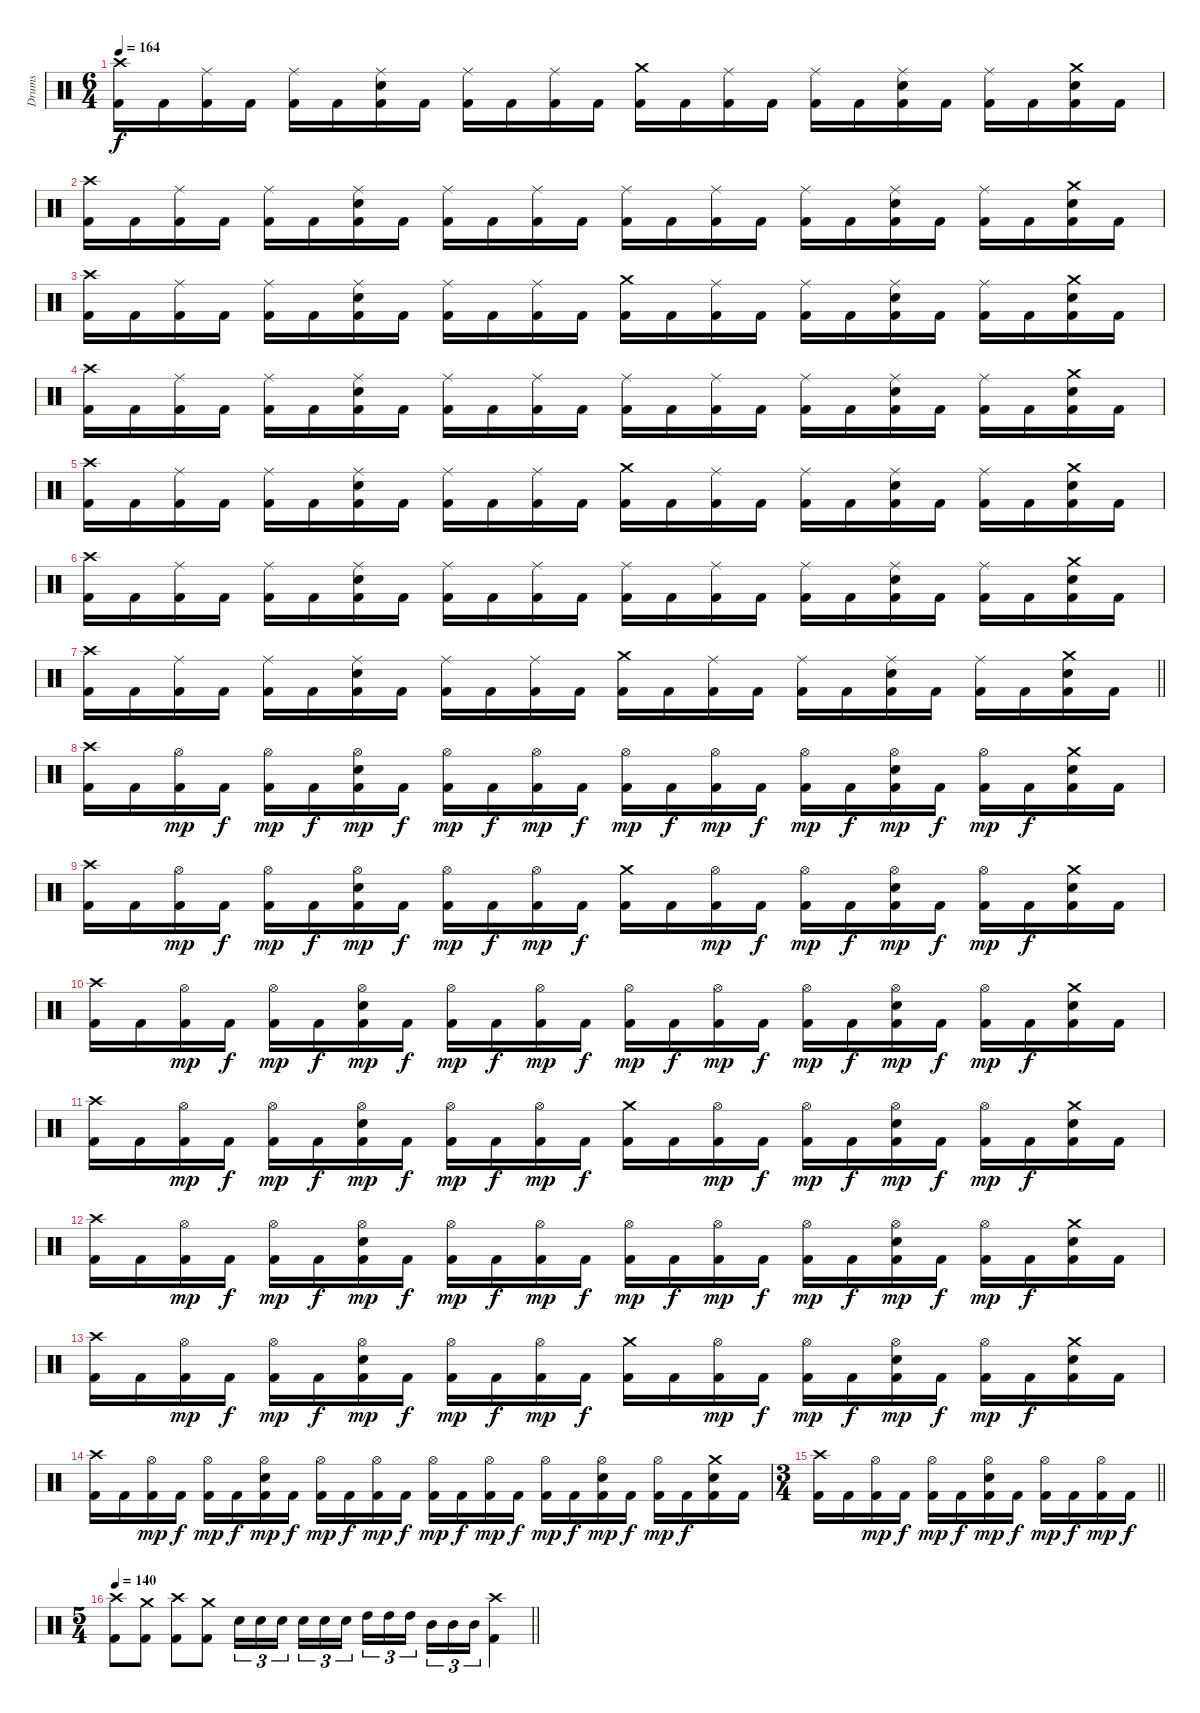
\track ("Drums" "Drums") {instrument percussion}
\staff {score}
\articulation defaults
\ts (6 4)
\tempo 164
\clef neutral
\ks c
("Crash high (hit)" "Kick (hit) 2").16{dy f} "Kick (hit) 2".16 ("Ride (middle)" "Kick (hit) 2").16 "Kick (hit) 2".16 ("Ride (middle)" "Kick (hit) 2").16 "Kick (hit) 2".16 ("Ride (middle)" "Snare (hit) 2" "Kick (hit) 2").16 "Kick (hit) 2".16 ("Ride (middle)" "Kick (hit) 2").16 "Kick (hit) 2".16 ("Ride (middle)" "Kick (hit) 2").16 "Kick (hit) 2".16 ("Crash medium (hit)" "Kick (hit) 2").16 "Kick (hit) 2".16 ("Ride (middle)" "Kick (hit) 2").16 "Kick (hit) 2".16 ("Ride (middle)" "Kick (hit) 2").16 "Kick (hit) 2".16 ("Ride (middle)" "Snare (hit) 2" "Kick (hit) 2").16 "Kick (hit) 2".16 ("Ride (middle)" "Kick (hit) 2").16 "Kick (hit) 2".16 ("Crash medium (hit)" "Snare (hit) 2" "Kick (hit) 2").16 "Kick (hit) 2".16 |
("Crash high (hit)" "Kick (hit) 2").16 "Kick (hit) 2".16 ("Ride (middle)" "Kick (hit) 2").16 "Kick (hit) 2".16 ("Ride (middle)" "Kick (hit) 2").16 "Kick (hit) 2".16 ("Ride (middle)" "Snare (hit) 2" "Kick (hit) 2").16 "Kick (hit) 2".16 ("Ride (middle)" "Kick (hit) 2").16 "Kick (hit) 2".16 ("Ride (middle)" "Kick (hit) 2").16 "Kick (hit) 2".16 ("Ride (middle)" "Kick (hit) 2").16 "Kick (hit) 2".16 ("Ride (middle)" "Kick (hit) 2").16 "Kick (hit) 2".16 ("Ride (middle)" "Kick (hit) 2").16 "Kick (hit) 2".16 ("Ride (middle)" "Snare (hit) 2" "Kick (hit) 2").16 "Kick (hit) 2".16 ("Ride (middle)" "Kick (hit) 2").16 "Kick (hit) 2".16 ("Crash medium (hit)" "Snare (hit) 2" "Kick (hit) 2").16 "Kick (hit) 2".16 |
("Crash high (hit)" "Kick (hit) 2").16 "Kick (hit) 2".16 ("Ride (middle)" "Kick (hit) 2").16 "Kick (hit) 2".16 ("Ride (middle)" "Kick (hit) 2").16 "Kick (hit) 2".16 ("Ride (middle)" "Snare (hit) 2" "Kick (hit) 2").16 "Kick (hit) 2".16 ("Ride (middle)" "Kick (hit) 2").16 "Kick (hit) 2".16 ("Ride (middle)" "Kick (hit) 2").16 "Kick (hit) 2".16 ("Crash medium (hit)" "Kick (hit) 2").16 "Kick (hit) 2".16 ("Ride (middle)" "Kick (hit) 2").16 "Kick (hit) 2".16 ("Ride (middle)" "Kick (hit) 2").16 "Kick (hit) 2".16 ("Ride (middle)" "Snare (hit) 2" "Kick (hit) 2").16 "Kick (hit) 2".16 ("Ride (middle)" "Kick (hit) 2").16 "Kick (hit) 2".16 ("Crash medium (hit)" "Snare (hit) 2" "Kick (hit) 2").16 "Kick (hit) 2".16 |
("Crash high (hit)" "Kick (hit) 2").16 "Kick (hit) 2".16 ("Ride (middle)" "Kick (hit) 2").16 "Kick (hit) 2".16 ("Ride (middle)" "Kick (hit) 2").16 "Kick (hit) 2".16 ("Ride (middle)" "Snare (hit) 2" "Kick (hit) 2").16 "Kick (hit) 2".16 ("Ride (middle)" "Kick (hit) 2").16 "Kick (hit) 2".16 ("Ride (middle)" "Kick (hit) 2").16 "Kick (hit) 2".16 ("Ride (middle)" "Kick (hit) 2").16 "Kick (hit) 2".16 ("Ride (middle)" "Kick (hit) 2").16 "Kick (hit) 2".16 ("Ride (middle)" "Kick (hit) 2").16 "Kick (hit) 2".16 ("Ride (middle)" "Snare (hit) 2" "Kick (hit) 2").16 "Kick (hit) 2".16 ("Ride (middle)" "Kick (hit) 2").16 "Kick (hit) 2".16 ("Crash medium (hit)" "Snare (hit) 2" "Kick (hit) 2").16 "Kick (hit) 2".16 |
("Crash high (hit)" "Kick (hit) 2").16 "Kick (hit) 2".16 ("Ride (middle)" "Kick (hit) 2").16 "Kick (hit) 2".16 ("Ride (middle)" "Kick (hit) 2").16 "Kick (hit) 2".16 ("Ride (middle)" "Snare (hit) 2" "Kick (hit) 2").16 "Kick (hit) 2".16 ("Ride (middle)" "Kick (hit) 2").16 "Kick (hit) 2".16 ("Ride (middle)" "Kick (hit) 2").16 "Kick (hit) 2".16 ("Crash medium (hit)" "Kick (hit) 2").16 "Kick (hit) 2".16 ("Ride (middle)" "Kick (hit) 2").16 "Kick (hit) 2".16 ("Ride (middle)" "Kick (hit) 2").16 "Kick (hit) 2".16 ("Ride (middle)" "Snare (hit) 2" "Kick (hit) 2").16 "Kick (hit) 2".16 ("Ride (middle)" "Kick (hit) 2").16 "Kick (hit) 2".16 ("Crash medium (hit)" "Snare (hit) 2" "Kick (hit) 2").16 "Kick (hit) 2".16 |
("Crash high (hit)" "Kick (hit) 2").16 "Kick (hit) 2".16 ("Ride (middle)" "Kick (hit) 2").16 "Kick (hit) 2".16 ("Ride (middle)" "Kick (hit) 2").16 "Kick (hit) 2".16 ("Ride (middle)" "Snare (hit) 2" "Kick (hit) 2").16 "Kick (hit) 2".16 ("Ride (middle)" "Kick (hit) 2").16 "Kick (hit) 2".16 ("Ride (middle)" "Kick (hit) 2").16 "Kick (hit) 2".16 ("Ride (middle)" "Kick (hit) 2").16 "Kick (hit) 2".16 ("Ride (middle)" "Kick (hit) 2").16 "Kick (hit) 2".16 ("Ride (middle)" "Kick (hit) 2").16 "Kick (hit) 2".16 ("Ride (middle)" "Snare (hit) 2" "Kick (hit) 2").16 "Kick (hit) 2".16 ("Ride (middle)" "Kick (hit) 2").16 "Kick (hit) 2".16 ("Crash medium (hit)" "Snare (hit) 2" "Kick (hit) 2").16 "Kick (hit) 2".16 |
\barLineRight lightlight
("Crash high (hit)" "Kick (hit) 2").16 "Kick (hit) 2".16 ("Ride (middle)" "Kick (hit) 2").16 "Kick (hit) 2".16 ("Ride (middle)" "Kick (hit) 2").16 "Kick (hit) 2".16 ("Ride (middle)" "Snare (hit) 2" "Kick (hit) 2").16 "Kick (hit) 2".16 ("Ride (middle)" "Kick (hit) 2").16 "Kick (hit) 2".16 ("Ride (middle)" "Kick (hit) 2").16 "Kick (hit) 2".16 ("Crash medium (hit)" "Kick (hit) 2").16 "Kick (hit) 2".16 ("Ride (middle)" "Kick (hit) 2").16 "Kick (hit) 2".16 ("Ride (middle)" "Kick (hit) 2").16 "Kick (hit) 2".16 ("Ride (middle)" "Snare (hit) 2" "Kick (hit) 2").16 "Kick (hit) 2".16 ("Ride (middle)" "Kick (hit) 2").16 "Kick (hit) 2".16 ("Crash medium (hit)" "Snare (hit) 2" "Kick (hit) 2").16 "Kick (hit) 2".16 |
\section ("" "")
("Crash high (hit)" "Kick (hit) 2").16 "Kick (hit) 2".16 ("Hi-Hat (open)" "Kick (hit) 2").16{dy mp} "Kick (hit) 2".16{dy f} ("Hi-Hat (open)" "Kick (hit) 2").16{dy mp} "Kick (hit) 2".16{dy f} ("Hi-Hat (open)" "Snare (hit) 2" "Kick (hit) 2").16{dy mp} "Kick (hit) 2".16{dy f} ("Hi-Hat (open)" "Kick (hit) 2").16{dy mp} "Kick (hit) 2".16{dy f} ("Hi-Hat (open)" "Kick (hit) 2").16{dy mp} "Kick (hit) 2".16{dy f} ("Hi-Hat (open)" "Kick (hit) 2").16{dy mp} "Kick (hit) 2".16{dy f} ("Hi-Hat (open)" "Kick (hit) 2").16{dy mp} "Kick (hit) 2".16{dy f} ("Hi-Hat (open)" "Kick (hit) 2").16{dy mp} "Kick (hit) 2".16{dy f} ("Hi-Hat (open)" "Snare (hit) 2" "Kick (hit) 2").16{dy mp} "Kick (hit) 2".16{dy f} ("Hi-Hat (open)" "Kick (hit) 2").16{dy mp} "Kick (hit) 2".16{dy f} ("Crash medium (hit)" "Snare (hit) 2" "Kick (hit) 2").16 "Kick (hit) 2".16 |
("Crash high (hit)" "Kick (hit) 2").16 "Kick (hit) 2".16 ("Hi-Hat (open)" "Kick (hit) 2").16{dy mp} "Kick (hit) 2".16{dy f} ("Hi-Hat (open)" "Kick (hit) 2").16{dy mp} "Kick (hit) 2".16{dy f} ("Hi-Hat (open)" "Snare (hit) 2" "Kick (hit) 2").16{dy mp} "Kick (hit) 2".16{dy f} ("Hi-Hat (open)" "Kick (hit) 2").16{dy mp} "Kick (hit) 2".16{dy f} ("Hi-Hat (open)" "Kick (hit) 2").16{dy mp} "Kick (hit) 2".16{dy f} ("Crash medium (hit)" "Kick (hit) 2").16 "Kick (hit) 2".16 ("Hi-Hat (open)" "Kick (hit) 2").16{dy mp} "Kick (hit) 2".16{dy f} ("Hi-Hat (open)" "Kick (hit) 2").16{dy mp} "Kick (hit) 2".16{dy f} ("Hi-Hat (open)" "Snare (hit) 2" "Kick (hit) 2").16{dy mp} "Kick (hit) 2".16{dy f} ("Hi-Hat (open)" "Kick (hit) 2").16{dy mp} "Kick (hit) 2".16{dy f} ("Crash medium (hit)" "Snare (hit) 2" "Kick (hit) 2").16 "Kick (hit) 2".16 |
("Crash high (hit)" "Kick (hit) 2").16 "Kick (hit) 2".16 ("Hi-Hat (open)" "Kick (hit) 2").16{dy mp} "Kick (hit) 2".16{dy f} ("Hi-Hat (open)" "Kick (hit) 2").16{dy mp} "Kick (hit) 2".16{dy f} ("Hi-Hat (open)" "Snare (hit) 2" "Kick (hit) 2").16{dy mp} "Kick (hit) 2".16{dy f} ("Hi-Hat (open)" "Kick (hit) 2").16{dy mp} "Kick (hit) 2".16{dy f} ("Hi-Hat (open)" "Kick (hit) 2").16{dy mp} "Kick (hit) 2".16{dy f} ("Hi-Hat (open)" "Kick (hit) 2").16{dy mp} "Kick (hit) 2".16{dy f} ("Hi-Hat (open)" "Kick (hit) 2").16{dy mp} "Kick (hit) 2".16{dy f} ("Hi-Hat (open)" "Kick (hit) 2").16{dy mp} "Kick (hit) 2".16{dy f} ("Hi-Hat (open)" "Snare (hit) 2" "Kick (hit) 2").16{dy mp} "Kick (hit) 2".16{dy f} ("Hi-Hat (open)" "Kick (hit) 2").16{dy mp} "Kick (hit) 2".16{dy f} ("Crash medium (hit)" "Snare (hit) 2" "Kick (hit) 2").16 "Kick (hit) 2".16 |
("Crash high (hit)" "Kick (hit) 2").16 "Kick (hit) 2".16 ("Hi-Hat (open)" "Kick (hit) 2").16{dy mp} "Kick (hit) 2".16{dy f} ("Hi-Hat (open)" "Kick (hit) 2").16{dy mp} "Kick (hit) 2".16{dy f} ("Hi-Hat (open)" "Snare (hit) 2" "Kick (hit) 2").16{dy mp} "Kick (hit) 2".16{dy f} ("Hi-Hat (open)" "Kick (hit) 2").16{dy mp} "Kick (hit) 2".16{dy f} ("Hi-Hat (open)" "Kick (hit) 2").16{dy mp} "Kick (hit) 2".16{dy f} ("Crash medium (hit)" "Kick (hit) 2").16 "Kick (hit) 2".16 ("Hi-Hat (open)" "Kick (hit) 2").16{dy mp} "Kick (hit) 2".16{dy f} ("Hi-Hat (open)" "Kick (hit) 2").16{dy mp} "Kick (hit) 2".16{dy f} ("Hi-Hat (open)" "Snare (hit) 2" "Kick (hit) 2").16{dy mp} "Kick (hit) 2".16{dy f} ("Hi-Hat (open)" "Kick (hit) 2").16{dy mp} "Kick (hit) 2".16{dy f} ("Crash medium (hit)" "Snare (hit) 2" "Kick (hit) 2").16 "Kick (hit) 2".16 |
("Crash high (hit)" "Kick (hit) 2").16 "Kick (hit) 2".16 ("Hi-Hat (open)" "Kick (hit) 2").16{dy mp} "Kick (hit) 2".16{dy f} ("Hi-Hat (open)" "Kick (hit) 2").16{dy mp} "Kick (hit) 2".16{dy f} ("Hi-Hat (open)" "Snare (hit) 2" "Kick (hit) 2").16{dy mp} "Kick (hit) 2".16{dy f} ("Hi-Hat (open)" "Kick (hit) 2").16{dy mp} "Kick (hit) 2".16{dy f} ("Hi-Hat (open)" "Kick (hit) 2").16{dy mp} "Kick (hit) 2".16{dy f} ("Hi-Hat (open)" "Kick (hit) 2").16{dy mp} "Kick (hit) 2".16{dy f} ("Hi-Hat (open)" "Kick (hit) 2").16{dy mp} "Kick (hit) 2".16{dy f} ("Hi-Hat (open)" "Kick (hit) 2").16{dy mp} "Kick (hit) 2".16{dy f} ("Hi-Hat (open)" "Snare (hit) 2" "Kick (hit) 2").16{dy mp} "Kick (hit) 2".16{dy f} ("Hi-Hat (open)" "Kick (hit) 2").16{dy mp} "Kick (hit) 2".16{dy f} ("Crash medium (hit)" "Snare (hit) 2" "Kick (hit) 2").16 "Kick (hit) 2".16 |
("Crash high (hit)" "Kick (hit) 2").16 "Kick (hit) 2".16 ("Hi-Hat (open)" "Kick (hit) 2").16{dy mp} "Kick (hit) 2".16{dy f} ("Hi-Hat (open)" "Kick (hit) 2").16{dy mp} "Kick (hit) 2".16{dy f} ("Hi-Hat (open)" "Snare (hit) 2" "Kick (hit) 2").16{dy mp} "Kick (hit) 2".16{dy f} ("Hi-Hat (open)" "Kick (hit) 2").16{dy mp} "Kick (hit) 2".16{dy f} ("Hi-Hat (open)" "Kick (hit) 2").16{dy mp} "Kick (hit) 2".16{dy f} ("Crash medium (hit)" "Kick (hit) 2").16 "Kick (hit) 2".16 ("Hi-Hat (open)" "Kick (hit) 2").16{dy mp} "Kick (hit) 2".16{dy f} ("Hi-Hat (open)" "Kick (hit) 2").16{dy mp} "Kick (hit) 2".16{dy f} ("Hi-Hat (open)" "Snare (hit) 2" "Kick (hit) 2").16{dy mp} "Kick (hit) 2".16{dy f} ("Hi-Hat (open)" "Kick (hit) 2").16{dy mp} "Kick (hit) 2".16{dy f} ("Crash medium (hit)" "Snare (hit) 2" "Kick (hit) 2").16 "Kick (hit) 2".16 |
("Crash high (hit)" "Kick (hit) 2").16 "Kick (hit) 2".16 ("Hi-Hat (open)" "Kick (hit) 2").16{dy mp} "Kick (hit) 2".16{dy f} ("Hi-Hat (open)" "Kick (hit) 2").16{dy mp} "Kick (hit) 2".16{dy f} ("Hi-Hat (open)" "Snare (hit) 2" "Kick (hit) 2").16{dy mp} "Kick (hit) 2".16{dy f} ("Hi-Hat (open)" "Kick (hit) 2").16{dy mp} "Kick (hit) 2".16{dy f} ("Hi-Hat (open)" "Kick (hit) 2").16{dy mp} "Kick (hit) 2".16{dy f} ("Hi-Hat (open)" "Kick (hit) 2").16{dy mp} "Kick (hit) 2".16{dy f} ("Hi-Hat (open)" "Kick (hit) 2").16{dy mp} "Kick (hit) 2".16{dy f} ("Hi-Hat (open)" "Kick (hit) 2").16{dy mp} "Kick (hit) 2".16{dy f} ("Hi-Hat (open)" "Snare (hit) 2" "Kick (hit) 2").16{dy mp} "Kick (hit) 2".16{dy f} ("Hi-Hat (open)" "Kick (hit) 2").16{dy mp} "Kick (hit) 2".16{dy f} ("Crash medium (hit)" "Snare (hit) 2" "Kick (hit) 2").16 "Kick (hit) 2".16 |
\ts (3 4)
\barLineRight lightlight
("Crash high (hit)" "Kick (hit) 2").16 "Kick (hit) 2".16 ("Hi-Hat (open)" "Kick (hit) 2").16{dy mp} "Kick (hit) 2".16{dy f} ("Hi-Hat (open)" "Kick (hit) 2").16{dy mp} "Kick (hit) 2".16{dy f} ("Hi-Hat (open)" "Snare (hit) 2" "Kick (hit) 2").16{dy mp} "Kick (hit) 2".16{dy f} ("Hi-Hat (open)" "Kick (hit) 2").16{dy mp} "Kick (hit) 2".16{dy f} ("Hi-Hat (open)" "Kick (hit) 2").16{dy mp} "Kick (hit) 2".16{dy f} |
\ts (5 4)
\section ("" "")
\tempo 140
\barLineRight lightlight
("Crash high (hit)" "Kick (hit) 2").8 ("Crash medium (hit)" "Kick (hit) 2").8 ("Crash high (hit)" "Kick (hit) 2").8 ("Crash medium (hit)" "Kick (hit) 2").8 "Snare (hit) 2".16{tu (3 2)} "Snare (hit) 2".16{tu (3 2)} "Snare (hit) 2".16{tu (3 2) beam splitsecondary} "Snare (hit) 2".16{tu (3 2)} "Snare (hit) 2".16{tu (3 2)} "Snare (hit) 2".16{tu (3 2)} "High Tom (hit)".16{tu (3 2)} "High Tom (hit)".16{tu (3 2)} "High Tom (hit)".16{tu (3 2) beam splitsecondary} "Mid Tom (hit)".16{tu (3 2)} "Mid Tom (hit)".16{tu (3 2)} "Mid Tom (hit)".16{tu (3 2)} ("Crash high (hit)" "Kick (hit) 2").4
